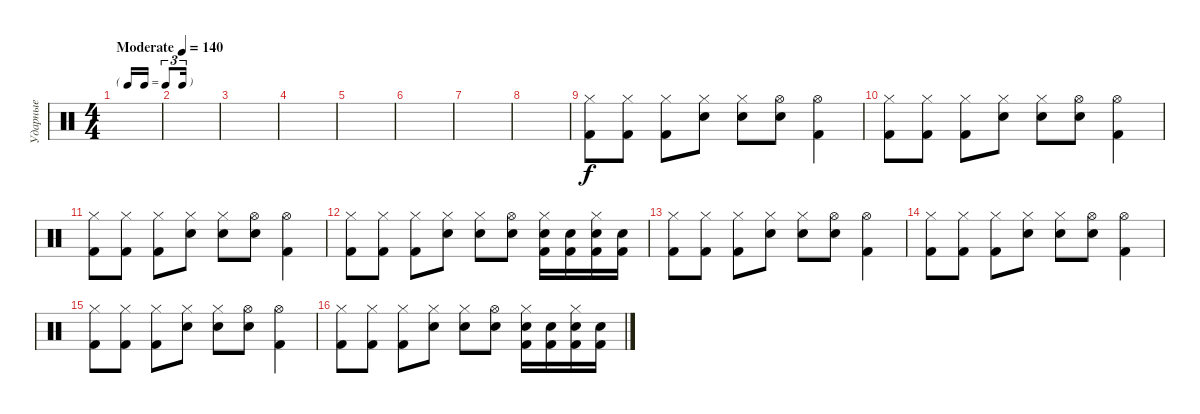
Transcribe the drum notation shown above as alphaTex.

\track ("Ударные" "Ударные") {instrument percussion}
\staff {score}
\articulation defaults
\ts (4 4)
\tf triplet16th
\tempo (140 "Moderate")
\clef neutral
\ks c
|
|
|
|
|
|
|
|
("Hi-Hat (closed)" "Kick (hit) 2").8 ("Hi-Hat (closed)" "Kick (hit) 2").8 ("Hi-Hat (closed)" "Kick (hit) 2").8 ("Hi-Hat (closed)" "Snare (hit) 2").8 ("Hi-Hat (closed)" "Snare (hit) 2").8 ("Hi-Hat (open)" "Snare (hit) 2").8 ("Hi-Hat (open)" "Kick (hit) 2").4 |
("Hi-Hat (closed)" "Kick (hit) 2").8 ("Hi-Hat (closed)" "Kick (hit) 2").8 ("Hi-Hat (closed)" "Kick (hit) 2").8 ("Hi-Hat (closed)" "Snare (hit) 2").8 ("Hi-Hat (closed)" "Snare (hit) 2").8 ("Hi-Hat (open)" "Snare (hit) 2").8 ("Hi-Hat (open)" "Kick (hit) 2").4 |
("Hi-Hat (closed)" "Kick (hit) 2").8 ("Hi-Hat (closed)" "Kick (hit) 2").8 ("Hi-Hat (closed)" "Kick (hit) 2").8 ("Hi-Hat (closed)" "Snare (hit) 2").8 ("Hi-Hat (closed)" "Snare (hit) 2").8 ("Hi-Hat (open)" "Snare (hit) 2").8 ("Hi-Hat (open)" "Kick (hit) 2").4 |
("Hi-Hat (closed)" "Kick (hit) 2").8 ("Hi-Hat (closed)" "Kick (hit) 2").8 ("Hi-Hat (closed)" "Kick (hit) 2").8 ("Hi-Hat (closed)" "Snare (hit) 2").8 ("Hi-Hat (closed)" "Snare (hit) 2").8 ("Hi-Hat (open)" "Snare (hit) 2").8 ("Snare (hit) 2" "Hi-Hat (closed)" "Kick (hit) 2").16 ("Snare (hit) 2" "Kick (hit) 2").16 ("Snare (hit) 2" "Hi-Hat (closed)" "Kick (hit) 2").16 ("Snare (hit) 2" "Kick (hit) 2").16 |
("Hi-Hat (closed)" "Kick (hit) 2").8 ("Hi-Hat (closed)" "Kick (hit) 2").8 ("Hi-Hat (closed)" "Kick (hit) 2").8 ("Hi-Hat (closed)" "Snare (hit) 2").8 ("Hi-Hat (closed)" "Snare (hit) 2").8 ("Hi-Hat (open)" "Snare (hit) 2").8 ("Hi-Hat (open)" "Kick (hit) 2").4 |
("Hi-Hat (closed)" "Kick (hit) 2").8 ("Hi-Hat (closed)" "Kick (hit) 2").8 ("Hi-Hat (closed)" "Kick (hit) 2").8 ("Hi-Hat (closed)" "Snare (hit) 2").8 ("Hi-Hat (closed)" "Snare (hit) 2").8 ("Hi-Hat (open)" "Snare (hit) 2").8 ("Hi-Hat (open)" "Kick (hit) 2").4 |
("Hi-Hat (closed)" "Kick (hit) 2").8 ("Hi-Hat (closed)" "Kick (hit) 2").8 ("Hi-Hat (closed)" "Kick (hit) 2").8 ("Hi-Hat (closed)" "Snare (hit) 2").8 ("Hi-Hat (closed)" "Snare (hit) 2").8 ("Hi-Hat (open)" "Snare (hit) 2").8 ("Hi-Hat (open)" "Kick (hit) 2").4 |
("Hi-Hat (closed)" "Kick (hit) 2").8 ("Hi-Hat (closed)" "Kick (hit) 2").8 ("Hi-Hat (closed)" "Kick (hit) 2").8 ("Hi-Hat (closed)" "Snare (hit) 2").8 ("Hi-Hat (closed)" "Snare (hit) 2").8 ("Hi-Hat (open)" "Snare (hit) 2").8 ("Snare (hit) 2" "Hi-Hat (closed)" "Kick (hit) 2").16 ("Snare (hit) 2" "Kick (hit) 2").16 ("Snare (hit) 2" "Hi-Hat (closed)" "Kick (hit) 2").16 ("Snare (hit) 2" "Kick (hit) 2").16
